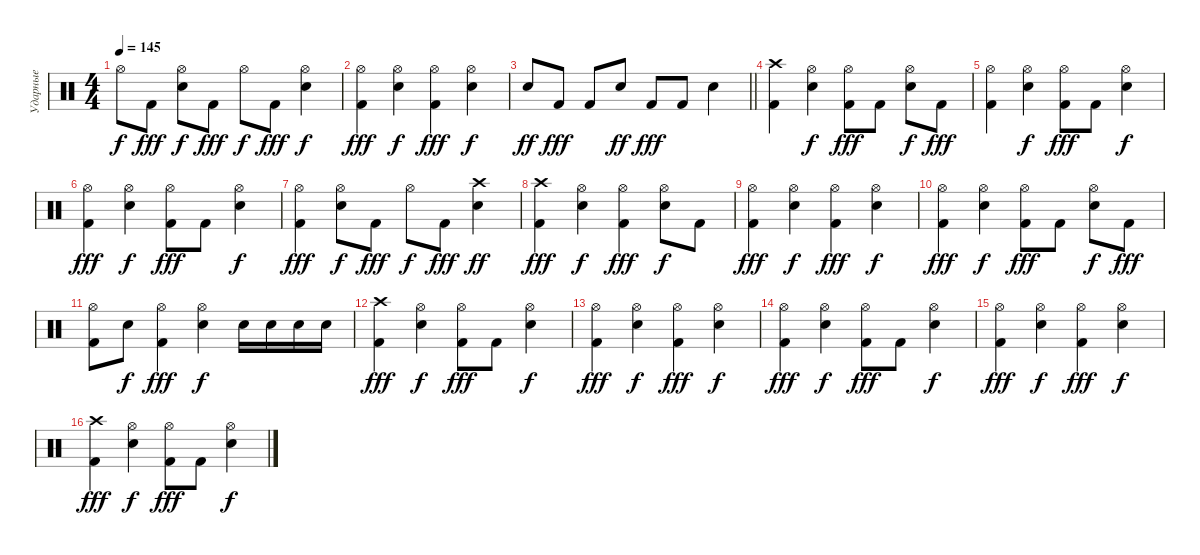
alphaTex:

\track ("Ударные" "Ударные") {instrument percussion}
\staff {score}
\articulation defaults
\ts (4 4)
\tempo 145
\clef neutral
\ks c "Hi-Hat (open)".8{dy f} "Kick (hit) 2".8{dy fff}
("Snare (hit) 2" "Hi-Hat (open)").8{dy f} "Kick (hit) 2".8{dy fff} "Hi-Hat (open)".8{dy f} "Kick (hit) 2".8{dy fff} ("Snare (hit) 2" "Hi-Hat (open)").4{dy f} |
("Kick (hit) 2" "Hi-Hat (open)").4{dy fff} ("Snare (hit) 2" "Hi-Hat (open)").4{dy f} ("Kick (hit) 2" "Hi-Hat (open)").4{dy fff} ("Snare (hit) 2" "Hi-Hat (open)").4{dy f} |
\barLineRight lightlight "Snare (hit) 2".8{dy ff} "Kick (hit) 2".8{dy fff} "Kick (hit) 2".8 "Snare (hit) 2".8{dy ff} "Kick (hit) 2".8{dy fff} "Kick (hit) 2".8 "Snare (hit) 2".4
|
("Kick (hit) 2" "Crash high (hit)").4 ("Snare (hit) 2" "Hi-Hat (open)").4{dy f} ("Kick (hit) 2" "Hi-Hat (open)").8{dy fff} "Kick (hit) 2".8 ("Snare (hit) 2" "Hi-Hat (open)").8{dy f} "Kick (hit) 2".8{dy fff} |
("Kick (hit) 2" "Hi-Hat (open)").4 ("Snare (hit) 2" "Hi-Hat (open)").4{dy f} ("Kick (hit) 2" "Hi-Hat (open)").8{dy fff} "Kick (hit) 2".8 ("Snare (hit) 2" "Hi-Hat (open)").4{dy f} |
("Kick (hit) 2" "Hi-Hat (open)").4{dy fff} ("Snare (hit) 2" "Hi-Hat (open)").4{dy f} ("Kick (hit) 2" "Hi-Hat (open)").8{dy fff} "Kick (hit) 2".8 ("Snare (hit) 2" "Hi-Hat (open)").4{dy f} |
("Kick (hit) 2" "Hi-Hat (open)").4{dy fff} ("Snare (hit) 2" "Hi-Hat (open)").8{dy f} "Kick (hit) 2".8{dy fff} "Hi-Hat (open)".8{dy f} "Kick (hit) 2".8{dy fff} ("Snare (hit) 2" "Crash high (hit)").4{dy ff} |
("Kick (hit) 2" "Crash high (hit)").4{dy fff} ("Snare (hit) 2" "Hi-Hat (open)").4{dy f} ("Kick (hit) 2" "Hi-Hat (open)").4{dy fff} ("Snare (hit) 2" "Hi-Hat (open)").8{dy f} "Kick (hit) 2".8 |
("Kick (hit) 2" "Hi-Hat (open)").4{dy fff} ("Snare (hit) 2" "Hi-Hat (open)").4{dy f} ("Kick (hit) 2" "Hi-Hat (open)").4{dy fff} ("Snare (hit) 2" "Hi-Hat (open)").4{dy f} |
("Kick (hit) 2" "Hi-Hat (open)").4{dy fff} ("Snare (hit) 2" "Hi-Hat (open)").4{dy f} ("Kick (hit) 2" "Hi-Hat (open)").8{dy fff} "Kick (hit) 2".8 ("Snare (hit) 2" "Hi-Hat (open)").8{dy f} "Kick (hit) 2".8{dy fff} |
("Kick (hit) 2" "Hi-Hat (open)").8 "Snare (hit) 2".8{dy f} ("Kick (hit) 2" "Hi-Hat (open)").4{dy fff} ("Snare (hit) 2" "Hi-Hat (open)").4{dy f} "Snare (hit) 2".16 "Snare (hit) 2".16 "Snare (hit) 2".16 "Snare (hit) 2".16 |
("Kick (hit) 2" "Crash high (hit)").4{dy fff} ("Snare (hit) 2" "Hi-Hat (open)").4{dy f} ("Kick (hit) 2" "Hi-Hat (open)").8{dy fff} "Kick (hit) 2".8 ("Snare (hit) 2" "Hi-Hat (open)").4{dy f} |
("Kick (hit) 2" "Hi-Hat (open)").4{dy fff} ("Snare (hit) 2" "Hi-Hat (open)").4{dy f} ("Kick (hit) 2" "Hi-Hat (open)").4{dy fff} ("Snare (hit) 2" "Hi-Hat (open)").4{dy f} |
("Kick (hit) 2" "Hi-Hat (open)").4{dy fff} ("Snare (hit) 2" "Hi-Hat (open)").4{dy f} ("Kick (hit) 2" "Hi-Hat (open)").8{dy fff} "Kick (hit) 2".8 ("Snare (hit) 2" "Hi-Hat (open)").4{dy f} |
("Kick (hit) 2" "Hi-Hat (open)").4{dy fff} ("Snare (hit) 2" "Hi-Hat (open)").4{dy f} ("Kick (hit) 2" "Hi-Hat (open)").4{dy fff} ("Snare (hit) 2" "Hi-Hat (open)").4{dy f} |
("Kick (hit) 2" "Crash high (hit)").4{dy fff} ("Snare (hit) 2" "Hi-Hat (open)").4{dy f} ("Kick (hit) 2" "Hi-Hat (open)").8{dy fff} "Kick (hit) 2".8 ("Snare (hit) 2" "Hi-Hat (open)").4{dy f}
